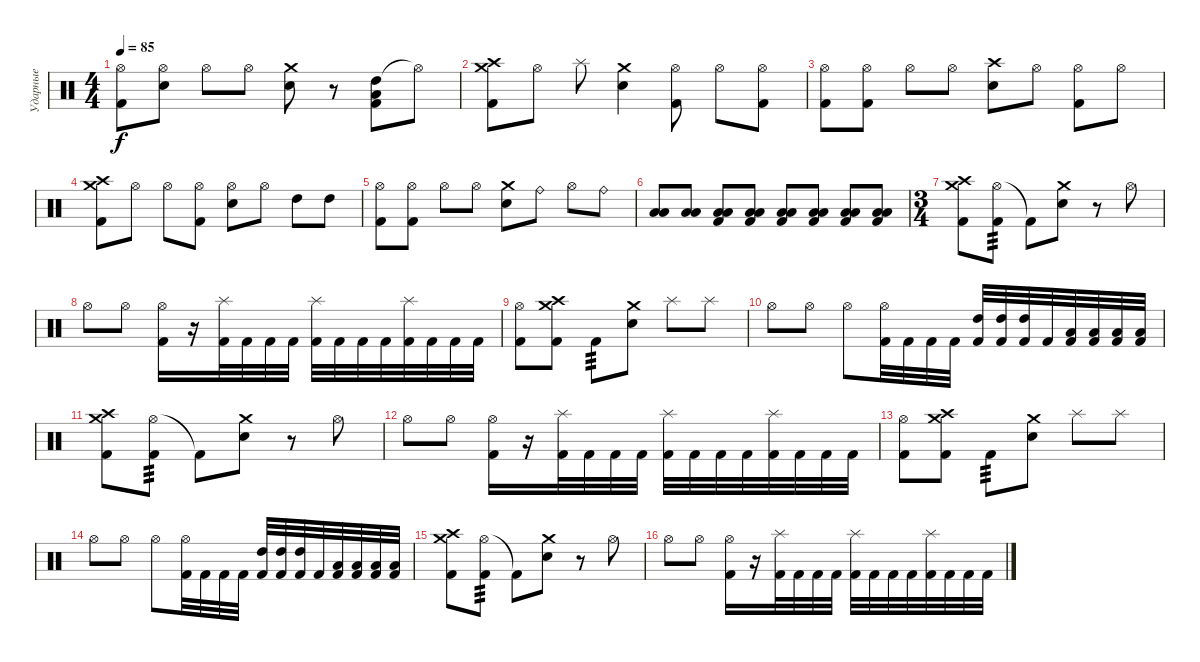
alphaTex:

\track ("Ударные" "Ударные") {instrument percussion}
\staff {score}
\articulation defaults
\ts (4 4)
\tempo 85
\clef neutral
\ks c
("Hi-Hat (open)" "Kick (hit) 2").8{dy f} ("Hi-Hat (open)" "Electric Snare (hit)").8 "Hi-Hat (open)".8 "Hi-Hat (open)".8 ("Crash medium (hit)" "Electric Snare (hit)").8 r.8 ("High Tom (hit)" "Low Floor Tom (hit)" "Kick (hit) 2").8 "Hi-Hat (open)"{t}.8 |
("Crash high (hit)" "Crash medium (hit)" "Kick (hit) 2").8 "Hi-Hat (open)".8 "Splash (hit)".8 ("Crash medium (hit)" "Electric Snare (hit)").4 ("Hi-Hat (open)" "Kick (hit) 2").8 "Hi-Hat (open)".8 ("Hi-Hat (open)" "Kick (hit) 2").8 |
("Hi-Hat (open)" "Kick (hit) 2").8 ("Hi-Hat (open)" "Kick (hit) 2").8 "Hi-Hat (open)".8 "Hi-Hat (open)".8 ("Crash high (hit)" "Electric Snare (hit)").8 "Hi-Hat (open)".8 ("Hi-Hat (open)" "Kick (hit) 2").8 "Hi-Hat (open)".8 |
("Crash high (hit)" "Crash medium (hit)" "Kick (hit) 2").8 "Hi-Hat (open)".8 "Hi-Hat (open)".8 ("Hi-Hat (open)" "Kick (hit) 2").8 ("Hi-Hat (open)" "Electric Snare (hit)").8 "Hi-Hat (open)".8 "High Tom (hit)".8 "High Tom (hit)".8 |
("Hi-Hat (open)" "Kick (hit) 2").8 ("Hi-Hat (open)" "Kick (hit) 2").8 "Hi-Hat (open)".8 "Hi-Hat (open)".8 ("Crash medium (hit)" "Electric Snare (hit)").8 "Ride (bell)".8 "Hi-Hat (open)".8 "Ride (bell)".8 |
("Low Tom (hit)" "Low Floor Tom (hit)").8 ("Low Tom (hit)" "Low Floor Tom (hit)").8 ("Low Tom (hit)" "Low Floor Tom (hit)" "Kick (hit) 2").8 ("Low Tom (hit)" "Low Floor Tom (hit)" "Kick (hit) 2").8 ("Low Tom (hit)" "Low Floor Tom (hit)" "Kick (hit) 2").8 ("Low Tom (hit)" "Low Floor Tom (hit)" "Kick (hit) 2").8 ("Low Tom (hit)" "Low Floor Tom (hit)" "Kick (hit) 2").8 ("Low Tom (hit)" "Low Floor Tom (hit)" "Kick (hit) 2").8 |
\ts (3 4)
("Crash high (hit)" "Crash medium (hit)" "Kick (hit) 2").8 ("Hi-Hat (open)" "Kick (hit) 2").8{tp 3} "Kick (hit) 2"{t}.8 ("Crash medium (hit)" "Electric Snare (hit)").8 r.8 "Hi-Hat (open)".8 |
"Hi-Hat (open)".8 "Hi-Hat (open)".8 ("Hi-Hat (open)" "Kick (hit) 2").16 r.16 ("Splash (hit)" "Kick (hit) 2").32 "Kick (hit) 2".32 "Kick (hit) 2".32 "Kick (hit) 2".32 ("Splash (hit)" "Kick (hit) 2").32 "Kick (hit) 2".32 "Kick (hit) 2".32 "Kick (hit) 2".32 ("Splash (hit)" "Kick (hit) 2").32 "Kick (hit) 2".32 "Kick (hit) 2".32 "Kick (hit) 2".32 |
("Hi-Hat (open)" "Kick (hit) 2").8 ("Crash medium (hit)" "Crash high (hit)" "Kick (hit) 2").8 "Kick (hit) 2".8{tp 3} ("Crash medium (hit)" "Electric Snare (hit)").8 "Splash (hit)".8 "Splash (hit)".8 |
"Hi-Hat (open)".8 "Hi-Hat (open)".8 "Hi-Hat (open)".8 ("Hi-Hat (open)" "Kick (hit) 2").32 "Kick (hit) 2".32 "Kick (hit) 2".32 "Kick (hit) 2".32 ("High Tom (hit)" "Kick (hit) 2").32 ("High Tom (hit)" "Kick (hit) 2").32 ("High Tom (hit)" "Kick (hit) 2").32 "Kick (hit) 2".32 ("Low Tom (hit)" "Kick (hit) 2").32 ("Low Tom (hit)" "Kick (hit) 2").32 ("Low Tom (hit)" "Kick (hit) 2").32 ("Low Tom (hit)" "Kick (hit) 2").32 |
("Crash high (hit)" "Crash medium (hit)" "Kick (hit) 2").8 ("Hi-Hat (open)" "Kick (hit) 2").8{tp 3} "Kick (hit) 2"{t}.8 ("Crash medium (hit)" "Electric Snare (hit)").8 r.8 "Hi-Hat (open)".8 |
"Hi-Hat (open)".8 "Hi-Hat (open)".8 ("Hi-Hat (open)" "Kick (hit) 2").16 r.16 ("Splash (hit)" "Kick (hit) 2").32 "Kick (hit) 2".32 "Kick (hit) 2".32 "Kick (hit) 2".32 ("Splash (hit)" "Kick (hit) 2").32 "Kick (hit) 2".32 "Kick (hit) 2".32 "Kick (hit) 2".32 ("Splash (hit)" "Kick (hit) 2").32 "Kick (hit) 2".32 "Kick (hit) 2".32 "Kick (hit) 2".32 |
("Hi-Hat (open)" "Kick (hit) 2").8 ("Crash medium (hit)" "Crash high (hit)" "Kick (hit) 2").8 "Kick (hit) 2".8{tp 3} ("Crash medium (hit)" "Electric Snare (hit)").8 "Splash (hit)".8 "Splash (hit)".8 |
"Hi-Hat (open)".8 "Hi-Hat (open)".8 "Hi-Hat (open)".8 ("Hi-Hat (open)" "Kick (hit) 2").32 "Kick (hit) 2".32 "Kick (hit) 2".32 "Kick (hit) 2".32 ("High Tom (hit)" "Kick (hit) 2").32 ("High Tom (hit)" "Kick (hit) 2").32 ("High Tom (hit)" "Kick (hit) 2").32 "Kick (hit) 2".32 ("Low Tom (hit)" "Kick (hit) 2").32 ("Low Tom (hit)" "Kick (hit) 2").32 ("Low Tom (hit)" "Kick (hit) 2").32 ("Low Tom (hit)" "Kick (hit) 2").32 |
("Crash high (hit)" "Crash medium (hit)" "Kick (hit) 2").8 ("Hi-Hat (open)" "Kick (hit) 2").8{tp 3} "Kick (hit) 2"{t}.8 ("Crash medium (hit)" "Electric Snare (hit)").8 r.8 "Hi-Hat (open)".8 |
"Hi-Hat (open)".8 "Hi-Hat (open)".8 ("Hi-Hat (open)" "Kick (hit) 2").16 r.16 ("Splash (hit)" "Kick (hit) 2").32 "Kick (hit) 2".32 "Kick (hit) 2".32 "Kick (hit) 2".32 ("Splash (hit)" "Kick (hit) 2").32 "Kick (hit) 2".32 "Kick (hit) 2".32 "Kick (hit) 2".32 ("Splash (hit)" "Kick (hit) 2").32 "Kick (hit) 2".32 "Kick (hit) 2".32 "Kick (hit) 2".32
